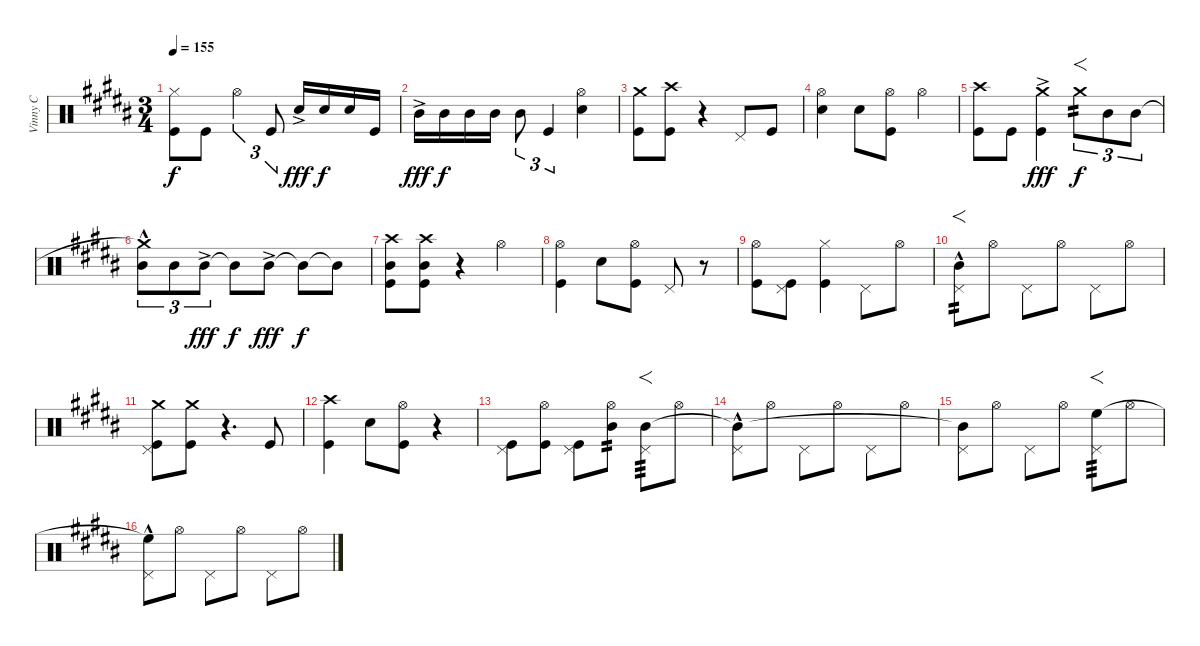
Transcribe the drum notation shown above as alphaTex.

\track ("Vinny C" "Vinny C") {instrument percussion}
\staff {score}
\articulation defaults
\ts (3 4)
\tempo 155
\clef neutral
\ks b
("Hi-Hat (closed)" "Kick (hit)").8{dy f} "Kick (hit)".8 "Hi-Hat (open)".4{tu (3 2)} "Kick (hit)".8{tu (3 2)} "Electric Snare (hit)"{ac}.16{dy fff} "Electric Snare (hit)".16{dy f} "Electric Snare (hit)".16 "Kick (hit)".16 |
"Mid Tom (hit)"{ac}.16{dy fff} "Mid Tom (hit)".16{dy f} "Mid Tom (hit)".16 "Mid Tom (hit)".16 "Mid Tom (hit)".8{tu (3 2)} "Kick (hit)".4{tu (3 2)} ("Hi-Hat (open)" "Electric Snare (hit)").4 |
("Crash medium (hit)" "Kick (hit)").8 ("Crash high (hit)" "Kick (hit)").8 r.4 "Pedal Hi-Hat (hit)".8 "Kick (hit)".8 |
("Hi-Hat (open)" "Electric Snare (hit)").4 "Electric Snare (hit)".8 ("Hi-Hat (open)" "Kick (hit)").8 "Hi-Hat (open)".4 |
("Crash high (hit)" "Kick (hit)").8 "Kick (hit)".8 ("Crash medium (hit)"{ac} "Kick (hit)").4{dy fff} "Crash medium (hit)".8{f tu (3 2) tp 2 dy f} "Mid Tom (hit)".8{tu (3 2)} "Mid Tom (hit)".8{tu (3 2)} |
("Crash medium (hit)"{hac t} "Mid Tom (hit)").8{tu (3 2)} "Mid Tom (hit)".8{tu (3 2)} "Mid Tom (hit)"{ac}.8{tu (3 2) dy fff} "Mid Tom (hit)"{t}.8{dy f} "Mid Tom (hit)"{ac}.8{dy fff} "Mid Tom (hit)"{t}.8{dy f} "Mid Tom (hit)"{t}.8 |
("Crash high (hit)" "Mid Tom (hit)" "Kick (hit)").8 ("Crash high (hit)" "Mid Tom (hit)" "Kick (hit)").8 r.4 "Hi-Hat (open)".4 |
("Hi-Hat (open)" "Kick (hit)").4 "Electric Snare (hit)".8 ("Hi-Hat (open)" "Kick (hit)").8 "Pedal Hi-Hat (hit)".8 r.8 |
("Hi-Hat (open)" "Kick (hit)").8 ("Pedal Hi-Hat (hit)" "Kick (hit)").8 ("Hi-Hat (closed)" "Kick (hit)").4 "Pedal Hi-Hat (hit)".8 "Hi-Hat (open)".8 |
("Pedal Hi-Hat (hit)" "Mid Tom (hit)"{hac}).8{f tp 2} "Hi-Hat (open)".8 "Pedal Hi-Hat (hit)".8 "Hi-Hat (open)".8 "Pedal Hi-Hat (hit)".8 "Hi-Hat (open)".8 |
("Crash medium (hit)" "Pedal Hi-Hat (hit)" "Kick (hit)").8 ("Crash medium (hit)" "Kick (hit)").8 r.4{d} "Kick (hit)".8 |
("Crash high (hit)" "Kick (hit)").4 "Electric Snare (hit)".8 ("Hi-Hat (open)" "Kick (hit)").8 r.4 |
("Pedal Hi-Hat (hit)" "Kick (hit)").8 ("Hi-Hat (open)" "Kick (hit)").8 ("Pedal Hi-Hat (hit)" "Kick (hit)").8 ("Hi-Hat (open)" "Mid Tom (hit)").8{tp 2} ("Pedal Hi-Hat (hit)" "Mid Tom (hit)").8{f tp 3} "Hi-Hat (open)".8 |
("Pedal Hi-Hat (hit)" "Mid Tom (hit)"{hac t}).8 "Hi-Hat (open)".8 "Pedal Hi-Hat (hit)".8 "Hi-Hat (open)".8 "Pedal Hi-Hat (hit)".8 "Hi-Hat (open)".8 |
("Pedal Hi-Hat (hit)" "Mid Tom (hit)"{t}).8 "Hi-Hat (open)".8 "Pedal Hi-Hat (hit)".8 "Hi-Hat (open)".8 ("Pedal Hi-Hat (hit)" "High Floor Tom (hit)").8{f tp 3} "Hi-Hat (open)".8 |
("Pedal Hi-Hat (hit)" "High Floor Tom (hit)"{hac t}).8 "Hi-Hat (open)".8 "Pedal Hi-Hat (hit)".8 "Hi-Hat (open)".8 "Pedal Hi-Hat (hit)".8 "Hi-Hat (open)".8
